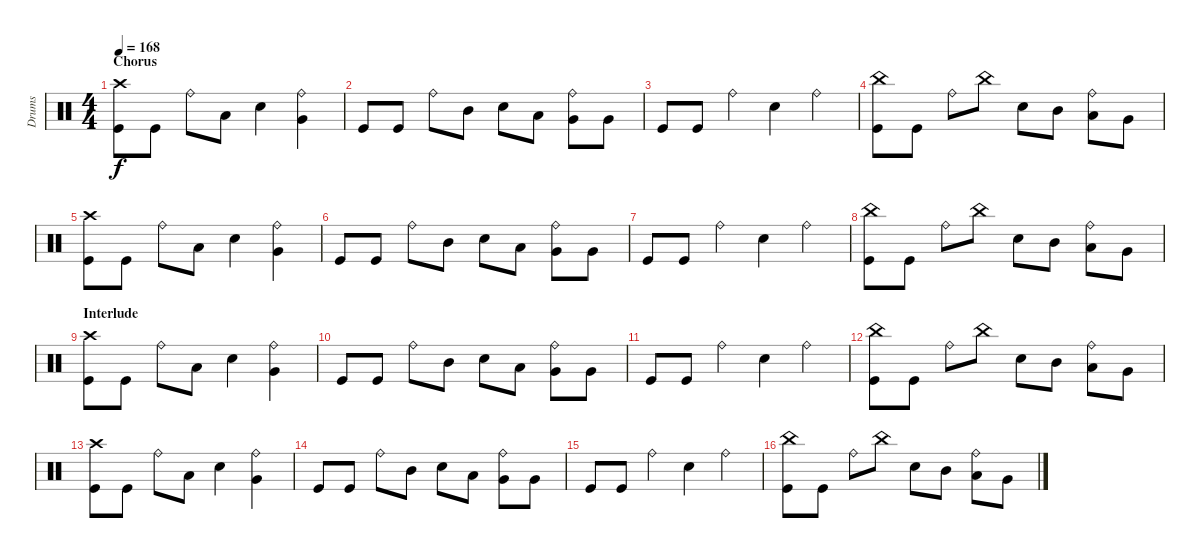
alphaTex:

\track ("Drums" "Drums") {instrument percussion}
\staff {score}
\articulation defaults
\ts (4 4)
\section ("" "Chorus")
\tempo 168
\clef neutral
\ks c
("Crash high (hit)" "Kick (hit)").8{dy f} "Kick (hit)".8 "Ride (bell)".8 "Low Tom (hit)".8 "Electric Snare (hit)".4 ("Ride (bell)" "Very Low Tom (hit)").4 |
"Kick (hit)".8 "Kick (hit)".8 "Ride (bell)".8 "Mid Tom (hit)".8 "Electric Snare (hit)".8 "Low Tom (hit)".8 ("Ride (bell)" "Very Low Tom (hit)").8 "Very Low Tom (hit)".8 |
"Kick (hit)".8 "Kick (hit)".8 "Ride (bell)".4 "Electric Snare (hit)".4 "Ride (bell)".4 |
("China (hit)" "Kick (hit)").8 "Kick (hit)".8 "Ride (bell)".8 "China (hit)".8 "Electric Snare (hit)".8 "Mid Tom (hit)".8 ("Ride (bell)" "Low Tom (hit)").8 "Very Low Tom (hit)".8 |
("Crash high (hit)" "Kick (hit)").8 "Kick (hit)".8 "Ride (bell)".8 "Low Tom (hit)".8 "Electric Snare (hit)".4 ("Ride (bell)" "Very Low Tom (hit)").4 |
"Kick (hit)".8 "Kick (hit)".8 "Ride (bell)".8 "Mid Tom (hit)".8 "Electric Snare (hit)".8 "Low Tom (hit)".8 ("Ride (bell)" "Very Low Tom (hit)").8 "Very Low Tom (hit)".8 |
"Kick (hit)".8 "Kick (hit)".8 "Ride (bell)".4 "Electric Snare (hit)".4 "Ride (bell)".4 |
("China (hit)" "Kick (hit)").8 "Kick (hit)".8 "Ride (bell)".8 "China (hit)".8 "Electric Snare (hit)".8 "Mid Tom (hit)".8 ("Ride (bell)" "Low Tom (hit)").8 "Very Low Tom (hit)".8 |
\section ("" "Interlude")
("Crash high (hit)" "Kick (hit)").8 "Kick (hit)".8 "Ride (bell)".8 "Low Tom (hit)".8 "Electric Snare (hit)".4 ("Ride (bell)" "Very Low Tom (hit)").4 |
"Kick (hit)".8 "Kick (hit)".8 "Ride (bell)".8 "Mid Tom (hit)".8 "Electric Snare (hit)".8 "Low Tom (hit)".8 ("Ride (bell)" "Very Low Tom (hit)").8 "Very Low Tom (hit)".8 |
"Kick (hit)".8 "Kick (hit)".8 "Ride (bell)".4 "Electric Snare (hit)".4 "Ride (bell)".4 |
("China (hit)" "Kick (hit)").8 "Kick (hit)".8 "Ride (bell)".8 "China (hit)".8 "Electric Snare (hit)".8 "Mid Tom (hit)".8 ("Ride (bell)" "Low Tom (hit)").8 "Very Low Tom (hit)".8 |
("Crash high (hit)" "Kick (hit)").8 "Kick (hit)".8 "Ride (bell)".8 "Low Tom (hit)".8 "Electric Snare (hit)".4 ("Ride (bell)" "Very Low Tom (hit)").4 |
"Kick (hit)".8 "Kick (hit)".8 "Ride (bell)".8 "Mid Tom (hit)".8 "Electric Snare (hit)".8 "Low Tom (hit)".8 ("Ride (bell)" "Very Low Tom (hit)").8 "Very Low Tom (hit)".8 |
"Kick (hit)".8 "Kick (hit)".8 "Ride (bell)".4 "Electric Snare (hit)".4 "Ride (bell)".4 |
("China (hit)" "Kick (hit)").8 "Kick (hit)".8 "Ride (bell)".8 "China (hit)".8 "Electric Snare (hit)".8 "Mid Tom (hit)".8 ("Ride (bell)" "Low Tom (hit)").8 "Very Low Tom (hit)".8
